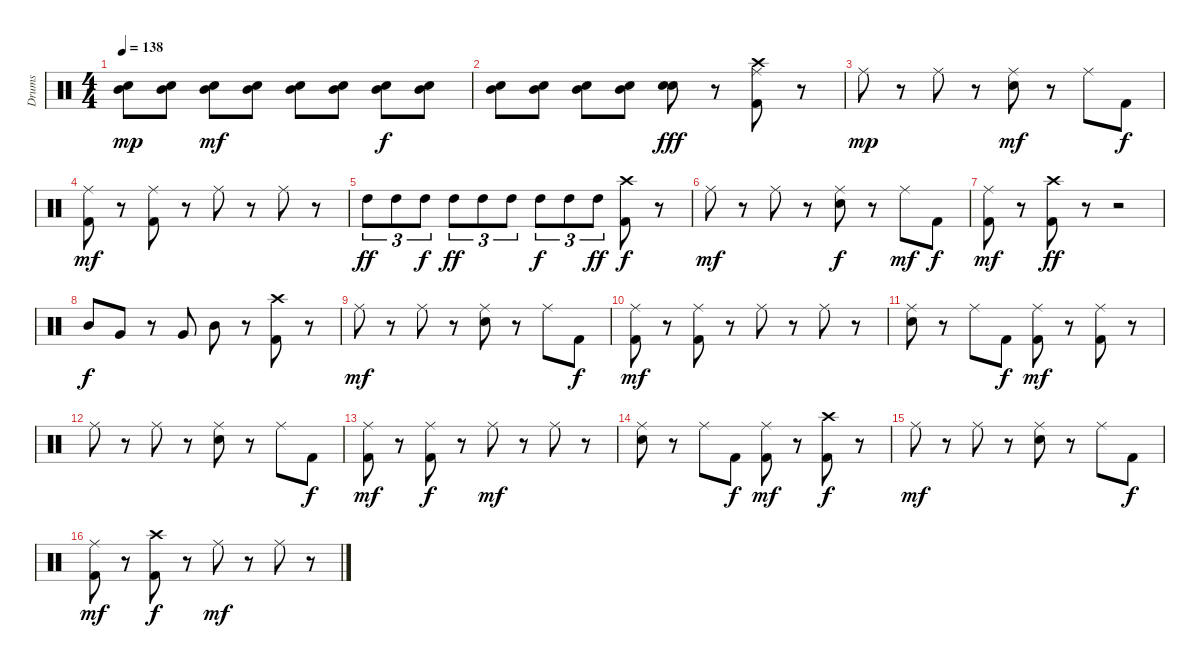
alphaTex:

\track ("Drums" "Drums") {instrument percussion}
\staff {score}
\articulation defaults
\ts (4 4)
\tempo 138
\clef neutral
\ks c
("Electric Snare (hit)" "Mid Tom (hit)").8{dy mp} ("Electric Snare (hit)" "Mid Tom (hit)").8 ("Electric Snare (hit)" "Mid Tom (hit)").8{dy mf} ("Electric Snare (hit)" "Mid Tom (hit)").8 ("Electric Snare (hit)" "Mid Tom (hit)").8 ("Electric Snare (hit)" "Mid Tom (hit)").8 ("Electric Snare (hit)" "Mid Tom (hit)").8{dy f} ("Electric Snare (hit)" "Mid Tom (hit)").8 |
("Electric Snare (hit)" "Mid Tom (hit)").8 ("Electric Snare (hit)" "Mid Tom (hit)").8 ("Electric Snare (hit)" "Mid Tom (hit)").8 ("Electric Snare (hit)" "Mid Tom (hit)").8 ("Electric Snare (hit)" "Hand Clap (hit)").8{dy fff} r.8 ("Ride (middle)" "Crash high (hit)" "Kick (hit) 2").8{volume 11} r.8 |
"Ride (middle)".8{dy mp} r.8 "Ride (middle)".8 r.8 ("Ride (middle)" "Snare (hit) 2").8{dy mf} r.8 "Ride (middle)".8 "Kick (hit) 2".8{dy f} |
("Ride (middle)" "Kick (hit) 2").8{dy mf} r.8 ("Ride (middle)" "Kick (hit) 2").8 r.8 "Ride (middle)".8 r.8 "Ride (middle)".8 r.8 |
"High Tom (hit)".8{tu (3 2) dy ff} "High Tom (hit)".8{tu (3 2)} "High Tom (hit)".8{tu (3 2) dy f} "High Tom (hit)".8{tu (3 2) dy ff} "High Tom (hit)".8{tu (3 2)} "High Tom (hit)".8{tu (3 2)} "High Tom (hit)".8{tu (3 2) dy f} "High Tom (hit)".8{tu (3 2)} "High Tom (hit)".8{tu (3 2) dy ff} ("Crash high (hit)" "Kick (hit) 2").8{dy f} r.8 |
"Ride (middle)".8{dy mf} r.8 "Ride (middle)".8 r.8 ("Ride (middle)" "Snare (hit) 2").8{dy f} r.8 "Ride (middle)".8{dy mf} "Kick (hit) 2".8{dy f} |
("Ride (middle)" "Kick (hit) 2").8{dy mf} r.8 ("Crash high (hit)" "Kick (hit) 2").8{dy ff} r.8 r.2 |
"Mid Tom (hit)".8{dy f} "Very Low Tom (hit)".8 r.8 "Very Low Tom (hit)".8 "Mid Tom (hit)".8 r.8 ("Crash high (hit)" "Kick (hit) 2").8 r.8 |
"Ride (middle)".8{dy mf} r.8 "Ride (middle)".8 r.8 ("Ride (middle)" "Snare (hit) 2").8 r.8 "Ride (middle)".8 "Kick (hit) 2".8{dy f} |
("Ride (middle)" "Kick (hit) 2").8{dy mf} r.8 ("Ride (middle)" "Kick (hit) 2").8 r.8 "Ride (middle)".8 r.8 "Ride (middle)".8 r.8 |
("Ride (middle)" "Snare (hit) 2").8 r.8 "Ride (middle)".8 "Kick (hit) 2".8{dy f} ("Ride (middle)" "Kick (hit) 2").8{dy mf} r.8 ("Ride (middle)" "Kick (hit) 2").8 r.8 |
"Ride (middle)".8 r.8 "Ride (middle)".8 r.8 ("Ride (middle)" "Snare (hit) 2").8 r.8 "Ride (middle)".8 "Kick (hit) 2".8{dy f} |
("Ride (middle)" "Kick (hit) 2").8{dy mf} r.8 ("Ride (middle)" "Kick (hit) 2").8{dy f} r.8 "Ride (middle)".8{dy mf} r.8 "Ride (middle)".8 r.8 |
("Ride (middle)" "Snare (hit) 2").8 r.8 "Ride (middle)".8 "Kick (hit) 2".8{dy f} ("Ride (middle)" "Kick (hit) 2").8{dy mf} r.8 ("Crash high (hit)" "Kick (hit) 2").8{dy f} r.8 |
"Ride (middle)".8{dy mf} r.8 "Ride (middle)".8 r.8 ("Ride (middle)" "Snare (hit) 2").8 r.8 "Ride (middle)".8 "Kick (hit) 2".8{dy f} |
("Ride (middle)" "Kick (hit) 2").8{dy mf} r.8 ("Crash high (hit)" "Kick (hit) 2").8{dy f} r.8 "Ride (middle)".8{dy mf} r.8 "Ride (middle)".8 r.8
